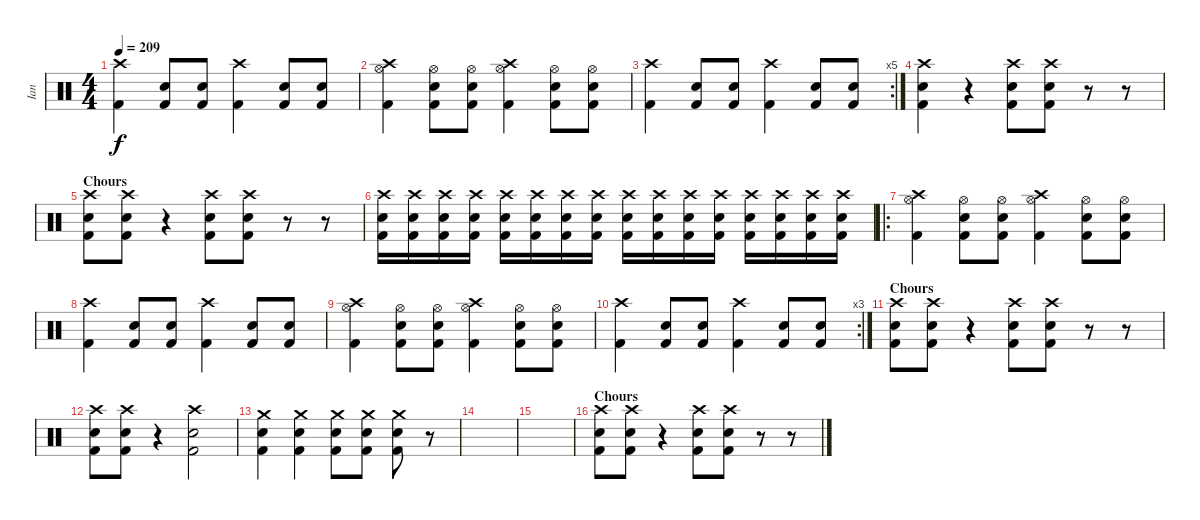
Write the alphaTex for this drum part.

\track ("Ian" "Ian") {instrument percussion}
\staff {score}
\articulation defaults
\ts (4 4)
\tempo 209
\clef neutral
\ks c
("Crash high (hit)" "Kick (hit) 2").4{dy f} ("Electric Snare (hit)" "Kick (hit) 2").8 ("Electric Snare (hit)" "Kick (hit) 2").8 ("Crash high (hit)" "Kick (hit) 2").4 ("Electric Snare (hit)" "Kick (hit) 2").8 ("Electric Snare (hit)" "Kick (hit) 2").8 |
("Hi-Hat (open)" "Crash high (hit)" "Kick (hit) 2").4 ("Electric Snare (hit)" "Hi-Hat (open)" "Kick (hit) 2").8 ("Electric Snare (hit)" "Hi-Hat (open)" "Kick (hit) 2").8 ("Hi-Hat (open)" "Crash high (hit)" "Kick (hit) 2").4 ("Electric Snare (hit)" "Hi-Hat (open)" "Kick (hit) 2").8 ("Electric Snare (hit)" "Hi-Hat (open)" "Kick (hit) 2").8 |
\rc 5
("Crash high (hit)" "Kick (hit) 2").4 ("Electric Snare (hit)" "Kick (hit) 2").8 ("Electric Snare (hit)" "Kick (hit) 2").8 ("Crash high (hit)" "Kick (hit) 2").4 ("Electric Snare (hit)" "Kick (hit) 2").8 ("Electric Snare (hit)" "Kick (hit) 2").8 |
("Crash high (hit)" "Kick (hit) 2" "Electric Snare (hit)").4 r.4 ("Crash high (hit)" "Kick (hit) 2" "Electric Snare (hit)").8 ("Crash high (hit)" "Kick (hit) 2" "Electric Snare (hit)").8 r.8 r.8 |
\section ("" "Chours")
("Crash high (hit)" "Electric Snare (hit)" "Kick (hit) 2").8 ("Crash high (hit)" "Electric Snare (hit)" "Kick (hit) 2").8 r.4 ("Crash high (hit)" "Electric Snare (hit)" "Kick (hit) 2").8 ("Crash high (hit)" "Electric Snare (hit)" "Kick (hit) 2").8 r.8 r.8 |
("Crash high (hit)" "Snare (hit) 2" "Kick (hit) 2").16 ("Crash high (hit)" "Snare (hit) 2" "Kick (hit) 2").16 ("Crash high (hit)" "Snare (hit) 2" "Kick (hit) 2").16 ("Crash high (hit)" "Snare (hit) 2" "Kick (hit) 2").16 ("Crash high (hit)" "Snare (hit) 2" "Kick (hit) 2").16 ("Crash high (hit)" "Snare (hit) 2" "Kick (hit) 2").16 ("Crash high (hit)" "Snare (hit) 2" "Kick (hit) 2").16 ("Crash high (hit)" "Snare (hit) 2" "Kick (hit) 2").16 ("Crash high (hit)" "Snare (hit) 2" "Kick (hit) 2").16 ("Crash high (hit)" "Snare (hit) 2" "Kick (hit) 2").16 ("Crash high (hit)" "Snare (hit) 2" "Kick (hit) 2").16 ("Crash high (hit)" "Snare (hit) 2" "Kick (hit) 2").16 ("Crash high (hit)" "Snare (hit) 2" "Kick (hit) 2").16 ("Crash high (hit)" "Snare (hit) 2" "Kick (hit) 2").16 ("Crash high (hit)" "Snare (hit) 2" "Kick (hit) 2").16 ("Crash high (hit)" "Snare (hit) 2" "Kick (hit) 2").16 |
\ro
("Hi-Hat (open)" "Crash high (hit)" "Kick (hit) 2").4 ("Electric Snare (hit)" "Hi-Hat (open)" "Kick (hit) 2").8 ("Electric Snare (hit)" "Hi-Hat (open)" "Kick (hit) 2").8 ("Hi-Hat (open)" "Crash high (hit)" "Kick (hit) 2").4 ("Electric Snare (hit)" "Hi-Hat (open)" "Kick (hit) 2").8 ("Electric Snare (hit)" "Hi-Hat (open)" "Kick (hit) 2").8 |
("Crash high (hit)" "Kick (hit) 2").4 ("Electric Snare (hit)" "Kick (hit) 2").8 ("Electric Snare (hit)" "Kick (hit) 2").8 ("Crash high (hit)" "Kick (hit) 2").4 ("Electric Snare (hit)" "Kick (hit) 2").8 ("Electric Snare (hit)" "Kick (hit) 2").8 |
("Hi-Hat (open)" "Crash high (hit)" "Kick (hit) 2").4 ("Electric Snare (hit)" "Hi-Hat (open)" "Kick (hit) 2").8 ("Electric Snare (hit)" "Hi-Hat (open)" "Kick (hit) 2").8 ("Hi-Hat (open)" "Crash high (hit)" "Kick (hit) 2").4 ("Electric Snare (hit)" "Hi-Hat (open)" "Kick (hit) 2").8 ("Electric Snare (hit)" "Hi-Hat (open)" "Kick (hit) 2").8 |
\rc 3
("Crash high (hit)" "Kick (hit) 2").4 ("Electric Snare (hit)" "Kick (hit) 2").8 ("Electric Snare (hit)" "Kick (hit) 2").8 ("Crash high (hit)" "Kick (hit) 2").4 ("Electric Snare (hit)" "Kick (hit) 2").8 ("Electric Snare (hit)" "Kick (hit) 2").8 |
\section ("" "Chours")
("Crash high (hit)" "Electric Snare (hit)" "Kick (hit) 2").8 ("Crash high (hit)" "Electric Snare (hit)" "Kick (hit) 2").8 r.4 ("Crash high (hit)" "Electric Snare (hit)" "Kick (hit) 2").8 ("Crash high (hit)" "Electric Snare (hit)" "Kick (hit) 2").8 r.8 r.8 |
("Crash high (hit)" "Electric Snare (hit)" "Kick (hit) 2").8 ("Crash high (hit)" "Electric Snare (hit)" "Kick (hit) 2").8 r.4 ("Electric Snare (hit)" "Crash high (hit)" "Kick (hit) 2").2 |
("Crash medium (hit)" "Electric Snare (hit)" "Kick (hit) 2").4 ("Crash medium (hit)" "Electric Snare (hit)" "Kick (hit) 2").4 ("Crash medium (hit)" "Electric Snare (hit)" "Kick (hit) 2").8 ("Crash medium (hit)" "Electric Snare (hit)" "Kick (hit) 2").8 ("Crash medium (hit)" "Electric Snare (hit)" "Kick (hit) 2").8 r.8 |
|
|
\section ("" "Chours")
("Crash high (hit)" "Electric Snare (hit)" "Kick (hit) 2").8 ("Crash high (hit)" "Electric Snare (hit)" "Kick (hit) 2").8 r.4 ("Crash high (hit)" "Electric Snare (hit)" "Kick (hit) 2").8 ("Crash high (hit)" "Electric Snare (hit)" "Kick (hit) 2").8 r.8 r.8
